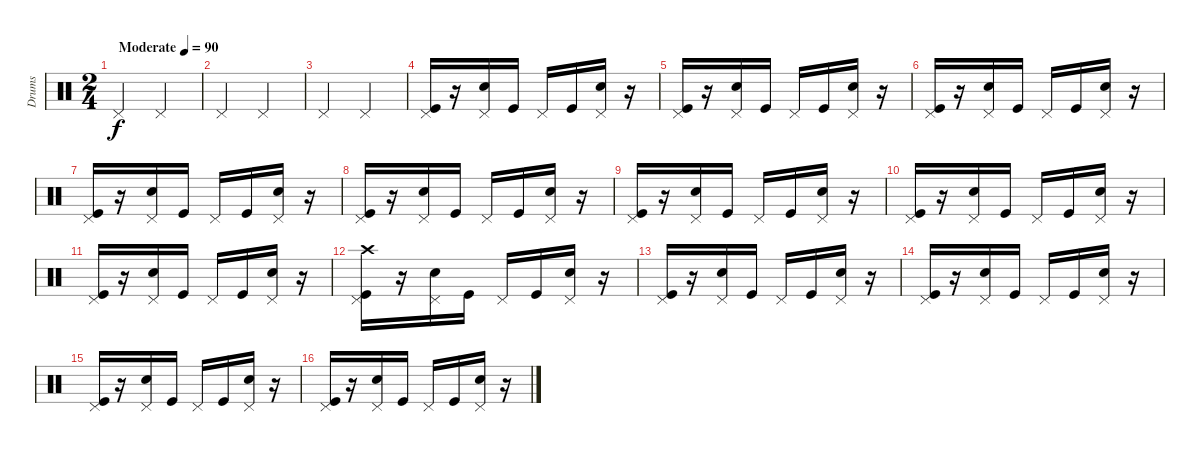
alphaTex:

\track ("Drums" "Drums") {instrument percussion}
\staff {score}
\articulation defaults
\ts (2 4)
\tempo (90 "Moderate")
\clef neutral
\ks c "Pedal Hi-Hat (hit)".4{dy f} "Pedal Hi-Hat (hit)".4
|
"Pedal Hi-Hat (hit)".4 "Pedal Hi-Hat (hit)".4 |
"Pedal Hi-Hat (hit)".4 "Pedal Hi-Hat (hit)".4 |
("Kick (hit)" "Pedal Hi-Hat (hit)").16 r.16 ("Snare (hit) 2" "Pedal Hi-Hat (hit)").16 "Kick (hit)".16 "Pedal Hi-Hat (hit)".16 "Kick (hit)".16 ("Snare (hit) 2" "Pedal Hi-Hat (hit)").16 r.16 |
("Kick (hit)" "Pedal Hi-Hat (hit)").16 r.16 ("Snare (hit) 2" "Pedal Hi-Hat (hit)").16 "Kick (hit)".16 "Pedal Hi-Hat (hit)".16 "Kick (hit)".16 ("Snare (hit) 2" "Pedal Hi-Hat (hit)").16 r.16 |
("Kick (hit)" "Pedal Hi-Hat (hit)").16 r.16 ("Snare (hit) 2" "Pedal Hi-Hat (hit)").16 "Kick (hit)".16 "Pedal Hi-Hat (hit)".16 "Kick (hit)".16 ("Snare (hit) 2" "Pedal Hi-Hat (hit)").16 r.16 |
("Kick (hit)" "Pedal Hi-Hat (hit)").16 r.16 ("Snare (hit) 2" "Pedal Hi-Hat (hit)").16 "Kick (hit)".16 "Pedal Hi-Hat (hit)".16 "Kick (hit)".16 ("Snare (hit) 2" "Pedal Hi-Hat (hit)").16 r.16 |
("Kick (hit)" "Pedal Hi-Hat (hit)").16 r.16 ("Snare (hit) 2" "Pedal Hi-Hat (hit)").16 "Kick (hit)".16 "Pedal Hi-Hat (hit)".16 "Kick (hit)".16 ("Snare (hit) 2" "Pedal Hi-Hat (hit)").16 r.16 |
("Kick (hit)" "Pedal Hi-Hat (hit)").16 r.16 ("Snare (hit) 2" "Pedal Hi-Hat (hit)").16 "Kick (hit)".16 "Pedal Hi-Hat (hit)".16 "Kick (hit)".16 ("Snare (hit) 2" "Pedal Hi-Hat (hit)").16 r.16 |
("Kick (hit)" "Pedal Hi-Hat (hit)").16 r.16 ("Snare (hit) 2" "Pedal Hi-Hat (hit)").16 "Kick (hit)".16 "Pedal Hi-Hat (hit)".16 "Kick (hit)".16 ("Snare (hit) 2" "Pedal Hi-Hat (hit)").16 r.16 |
("Kick (hit)" "Pedal Hi-Hat (hit)").16 r.16 ("Snare (hit) 2" "Pedal Hi-Hat (hit)").16 "Kick (hit)".16 "Pedal Hi-Hat (hit)".16 "Kick (hit)".16 ("Snare (hit) 2" "Pedal Hi-Hat (hit)").16 r.16 |
("Crash high (hit)" "Kick (hit)" "Pedal Hi-Hat (hit)").16 r.16 ("Snare (hit) 2" "Pedal Hi-Hat (hit)").16 "Kick (hit)".16 "Pedal Hi-Hat (hit)".16 "Kick (hit)".16 ("Snare (hit) 2" "Pedal Hi-Hat (hit)").16 r.16 |
("Kick (hit)" "Pedal Hi-Hat (hit)").16 r.16 ("Snare (hit) 2" "Pedal Hi-Hat (hit)").16 "Kick (hit)".16 "Pedal Hi-Hat (hit)".16 "Kick (hit)".16 ("Snare (hit) 2" "Pedal Hi-Hat (hit)").16 r.16 |
("Kick (hit)" "Pedal Hi-Hat (hit)").16 r.16 ("Snare (hit) 2" "Pedal Hi-Hat (hit)").16 "Kick (hit)".16 "Pedal Hi-Hat (hit)".16 "Kick (hit)".16 ("Snare (hit) 2" "Pedal Hi-Hat (hit)").16 r.16 |
("Kick (hit)" "Pedal Hi-Hat (hit)").16 r.16 ("Snare (hit) 2" "Pedal Hi-Hat (hit)").16 "Kick (hit)".16 "Pedal Hi-Hat (hit)".16 "Kick (hit)".16 ("Snare (hit) 2" "Pedal Hi-Hat (hit)").16 r.16 |
("Kick (hit)" "Pedal Hi-Hat (hit)").16 r.16 ("Snare (hit) 2" "Pedal Hi-Hat (hit)").16 "Kick (hit)".16 "Pedal Hi-Hat (hit)".16 "Kick (hit)".16 ("Snare (hit) 2" "Pedal Hi-Hat (hit)").16 r.16
